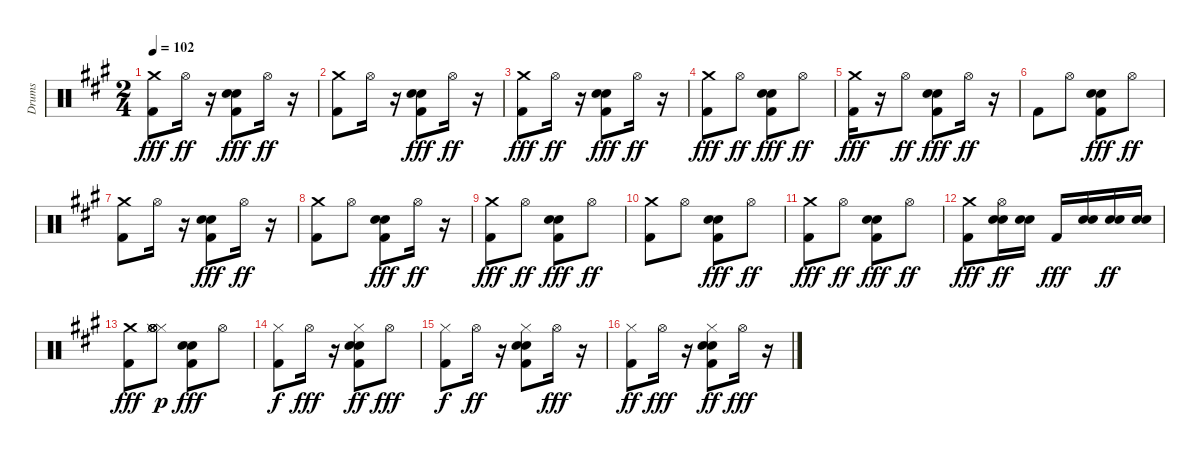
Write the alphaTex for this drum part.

\track ("Drums" "Drums") {instrument percussion}
\staff {score}
\articulation defaults
\ts (2 4)
\tempo 102
\clef neutral
\ks a
("Kick (hit) 2" "Crash medium (hit)").8{dy fff} "Hi-Hat (open)".16{dy ff} r.16 ("Kick (hit) 2" "Metronome (bell)" "Electric Snare (hit)").8{dy fff} "Hi-Hat (open)".16{dy ff} r.16 |
("Kick (hit) 2" "Crash medium (hit)").8 "Hi-Hat (open)".16 r.16 ("Kick (hit) 2" "Metronome (bell)" "Electric Snare (hit)").8{dy fff} "Hi-Hat (open)".16{dy ff} r.16 |
("Kick (hit) 2" "Crash medium (hit)").8{dy fff} "Hi-Hat (open)".16{dy ff} r.16 ("Kick (hit) 2" "Metronome (bell)" "Electric Snare (hit)").8{dy fff} "Hi-Hat (open)".16{dy ff} r.16 |
("Kick (hit) 2" "Crash medium (hit)").8{dy fff} "Hi-Hat (open)".8{dy ff} ("Kick (hit) 2" "Metronome (bell)" "Electric Snare (hit)").8{dy fff} "Hi-Hat (open)".8{dy ff} |
("Kick (hit) 2" "Crash medium (hit)").16{dy fff} r.16 "Hi-Hat (open)".8{dy ff} ("Kick (hit) 2" "Metronome (bell)" "Electric Snare (hit)").8{dy fff} "Hi-Hat (open)".16{dy ff} r.16 |
"Kick (hit) 2".8 "Hi-Hat (open)".8 ("Kick (hit) 2" "Metronome (bell)" "Electric Snare (hit)").8{dy fff} "Hi-Hat (open)".8{dy ff} |
("Kick (hit) 2" "Crash medium (hit)").8 "Hi-Hat (open)".16 r.16 ("Kick (hit) 2" "Metronome (bell)" "Electric Snare (hit)").8{dy fff} "Hi-Hat (open)".16{dy ff} r.16 |
("Kick (hit) 2" "Crash medium (hit)").8 "Hi-Hat (open)".8 ("Kick (hit) 2" "Metronome (bell)" "Electric Snare (hit)").8{dy fff} "Hi-Hat (open)".16{dy ff} r.16 |
("Kick (hit) 2" "Crash medium (hit)").8{dy fff} "Hi-Hat (open)".8{dy ff} ("Kick (hit) 2" "Metronome (bell)" "Electric Snare (hit)").8{dy fff} "Hi-Hat (open)".8{dy ff} |
("Kick (hit) 2" "Crash medium (hit)").8 "Hi-Hat (open)".8 ("Kick (hit) 2" "Metronome (bell)" "Electric Snare (hit)").8{dy fff} "Hi-Hat (open)".8{dy ff} |
("Kick (hit) 2" "Crash medium (hit)").8{dy fff} "Hi-Hat (open)".8{dy ff} ("Kick (hit) 2" "Metronome (bell)" "Electric Snare (hit)").8{dy fff} "Hi-Hat (open)".8{dy ff} |
("Kick (hit) 2" "Crash medium (hit)").8{dy fff} ("Metronome (bell)" "Electric Snare (hit)" "Hi-Hat (open)").16{dy ff} ("Metronome (bell)" "Electric Snare (hit)").16 "Kick (hit) 2".16{dy fff} ("Metronome (bell)" "Electric Snare (hit)").16 ("Metronome (bell)" "Electric Snare (hit)").16{dy ff} ("Metronome (bell)" "Electric Snare (hit)").16 |
("Kick (hit) 2" "Crash medium (hit)").8{dy fff} ("Hi-Hat (closed)" "Hi-Hat (closed)" "Hi-Hat (open)" "Hi-Hat (open)" "Hi-Hat (open)" "Hi-Hat (open)").8{dy p} ("Kick (hit) 2" "Metronome (bell)" "Electric Snare (hit)").8{dy fff} "Hi-Hat (open)".8 |
("Kick (hit) 2" "Hi-Hat (closed)").8{dy f} "Hi-Hat (open)".16{dy fff} r.16 ("Kick (hit) 2" "Metronome (bell)" "Electric Snare (hit)" "Hi-Hat (closed)").8{dy ff} "Hi-Hat (open)".8{dy fff} |
("Kick (hit) 2" "Hi-Hat (closed)").8{dy f} "Hi-Hat (open)".16{dy ff} r.16 ("Kick (hit) 2" "Metronome (bell)" "Electric Snare (hit)" "Hi-Hat (closed)").8 "Hi-Hat (open)".16{dy fff} r.16 |
("Kick (hit) 2" "Hi-Hat (closed)").8{dy ff} "Hi-Hat (open)".16{dy fff} r.16 ("Kick (hit) 2" "Metronome (bell)" "Electric Snare (hit)" "Hi-Hat (closed)").8{dy ff} "Hi-Hat (open)".16{dy fff} r.16
